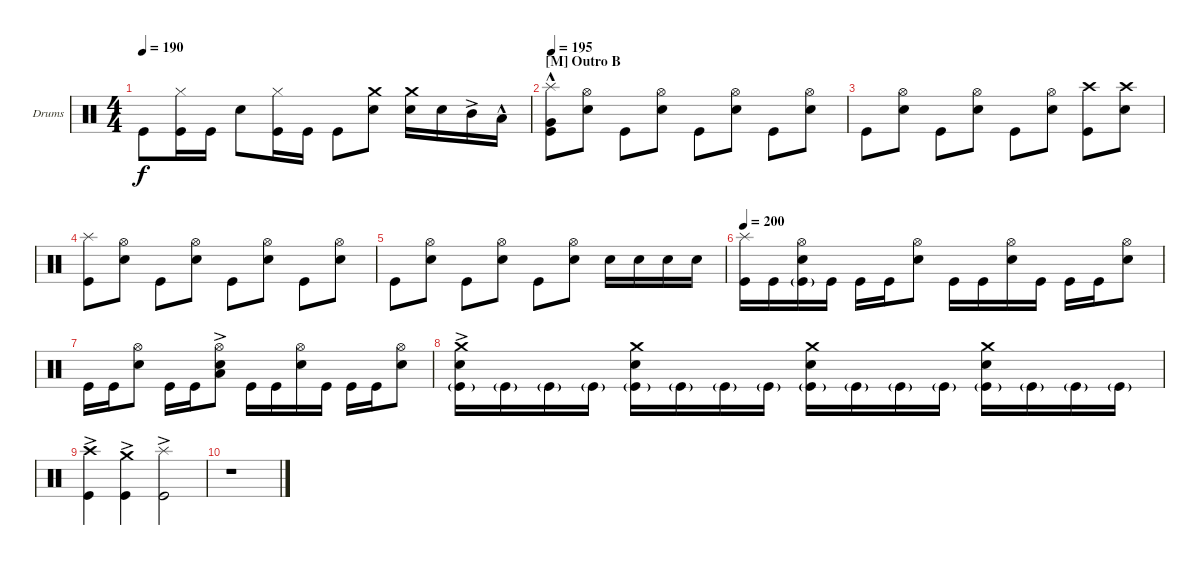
\defaultSystemsLayout 4
\bracketExtendMode groupsimilarinstruments
\firstSystemTrackNameOrientation horizontal
\otherSystemsTrackNameOrientation horizontal
\track ("Drumkit" "Drums") {instrument percussion}
\staff {score}
\articulation defaults
\ts (4 4)
\tempo 190
\clef neutral
\ks c "Kick (hit)".8{dy f}
("Kick (hit)" "Hi-Hat (closed)").16 "Kick (hit)".16 "Snare (hit) 2".8 ("Kick (hit)" "Hi-Hat (closed)").16 "Kick (hit)".16 "Kick (hit)".8 ("Snare (hit) 2" "Crash medium (hit)").8 ("Snare (hit) 2" "Crash medium (hit)").16 "Snare (hit) 2".16 "Mid Tom (hit)"{ac}.16 "Low Tom (hit)"{hac}.16 |
\section ("M" "Outro B")
\tempo (195 0.00625)
("Kick (hit)" "Splash (hit)" "Very Low Tom (hit)"{hac}).8 ("Snare (hit) 2" "Hi-Hat (open)").8 "Kick (hit)".8 ("Snare (hit) 2" "Hi-Hat (open)").8 "Kick (hit)".8 ("Snare (hit) 2" "Hi-Hat (open)").8 "Kick (hit)".8 ("Snare (hit) 2" "Hi-Hat (open)").8 |
"Kick (hit)".8 ("Snare (hit) 2" "Hi-Hat (open)").8 "Kick (hit)".8 ("Snare (hit) 2" "Hi-Hat (open)").8 "Kick (hit)".8 ("Snare (hit) 2" "Hi-Hat (open)").8 ("Crash high (hit)" "Kick (hit)").8 ("Crash high (hit)" "Snare (hit) 2").8 |
("Kick (hit)" "Splash (hit)").8 ("Hi-Hat (open)" "Snare (hit) 2").8 "Kick (hit)".8 ("Hi-Hat (open)" "Snare (hit) 2").8 "Kick (hit)".8 ("Hi-Hat (open)" "Snare (hit) 2").8 "Kick (hit)".8 ("Hi-Hat (open)" "Snare (hit) 2").8 |
"Kick (hit)".8 ("Hi-Hat (open)" "Snare (hit) 2").8 "Kick (hit)".8 ("Hi-Hat (open)" "Snare (hit) 2").8 "Kick (hit)".8 ("Hi-Hat (open)" "Snare (hit) 2").8 "Snare (hit) 2".16 "Snare (hit) 2".16 "Snare (hit) 2".16 "Snare (hit) 2".16 |
\tempo 200
("Kick (hit)" "Splash (hit)").16 "Kick (hit)".16 ("Kick (hit)"{g} "Snare (hit) 2" "Hi-Hat (open)").16 "Kick (hit)".16 "Kick (hit)".16 "Kick (hit)".16 ("Snare (hit) 2" "Hi-Hat (open)").8 "Kick (hit)".16 "Kick (hit)".16 ("Snare (hit) 2" "Hi-Hat (open)").16 "Kick (hit)".16 "Kick (hit)".16 "Kick (hit)".16 ("Snare (hit) 2" "Hi-Hat (open)").8 |
"Kick (hit)".16 "Kick (hit)".16 ("Snare (hit) 2" "Hi-Hat (open)").8 "Kick (hit)".16 "Kick (hit)".16 ("Snare (hit) 2" "Hi-Hat (open)" "Low Tom (hit)"{ac}).8 "Kick (hit)".16 "Kick (hit)".16 ("Snare (hit) 2" "Hi-Hat (open)").16 "Kick (hit)".16 "Kick (hit)".16 "Kick (hit)".16 ("Snare (hit) 2" "Hi-Hat (open)").8 |
("Kick (hit)"{g} "Snare (hit) 2" "Crash medium (hit)"{ac}).16 "Kick (hit)"{g}.16 "Kick (hit)"{g}.16 "Kick (hit)"{g}.16 ("Kick (hit)"{g} "Snare (hit) 2" "Crash medium (hit)").16 "Kick (hit)"{g}.16 "Kick (hit)"{g}.16 "Kick (hit)"{g}.16 ("Kick (hit)"{g} "Snare (hit) 2" "Crash medium (hit)").16 "Kick (hit)"{g}.16 "Kick (hit)"{g}.16 "Kick (hit)"{g}.16 ("Kick (hit)"{g} "Snare (hit) 2" "Crash medium (hit)").16 "Kick (hit)"{g}.16 "Kick (hit)"{g}.16 "Kick (hit)"{g}.16 |
("Kick (hit)" "Crash high (hit)"{ac}).4 ("Kick (hit)" "Crash medium (hit)"{ac}).4 ("Kick (hit)" "Splash (hit)"{ac}).2 |
r.1
